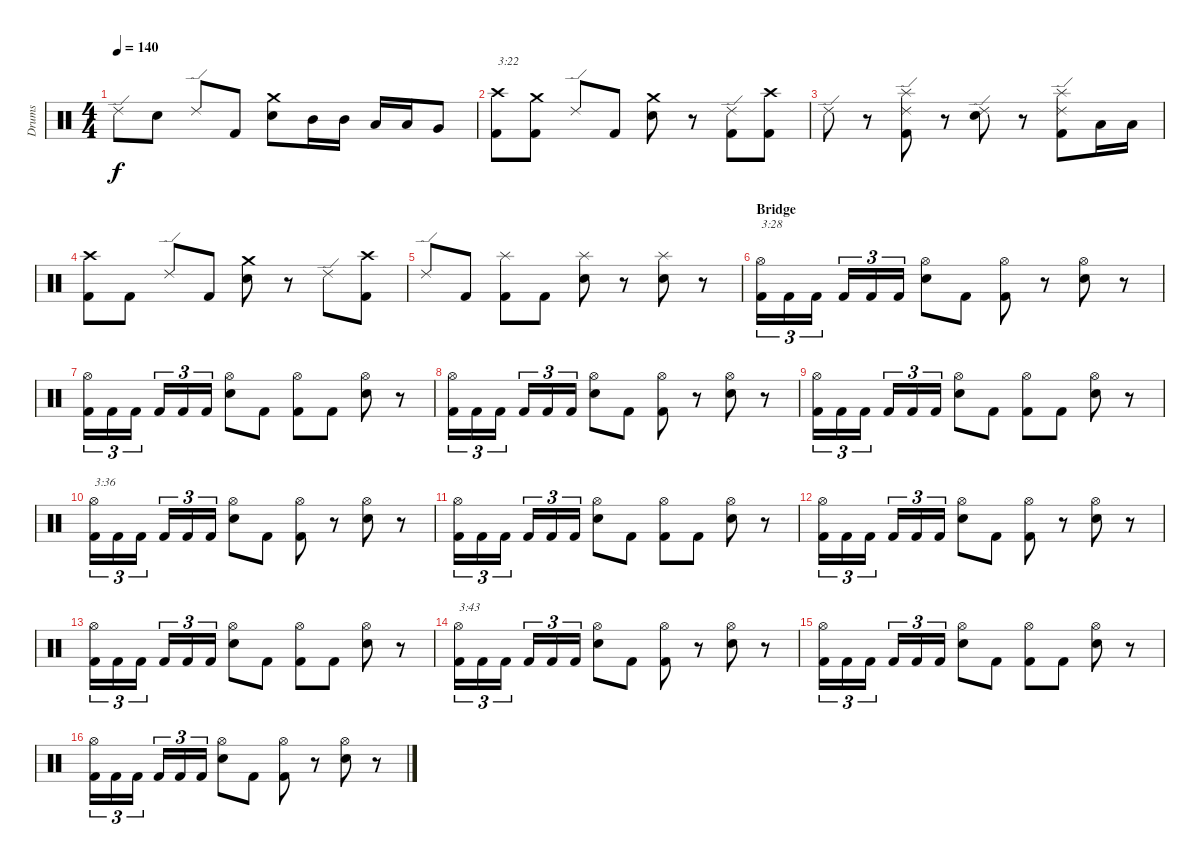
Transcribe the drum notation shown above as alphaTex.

\track ("Drums" "Drums") {instrument percussion}
\staff {score}
\articulation defaults
\ts (4 4)
\tempo 140
\clef neutral
\ks c "Ride (edge) 2".8{dy f} "Electric Snare (hit)".8 "Ride (edge) 2".8 "Kick (hit) 2".8
("Crash medium (hit)" "Electric Snare (hit)").8 "Mid Tom (hit)".16 "Mid Tom (hit)".16 "Low Tom (hit)".16 "Low Tom (hit)".16 "Very Low Tom (hit)".8 |
("Crash high (hit)" "Kick (hit) 2").8{txt "3:22"} ("Crash medium (hit)" "Kick (hit) 2").8 "Ride (edge) 2".8 "Kick (hit) 2".8 ("Crash medium (hit)" "Electric Snare (hit)").8 r.8 ("Ride (edge) 2" "Kick (hit) 2").8 ("Crash high (hit)" "Kick (hit) 2").8 |
"Ride (edge) 2".8 r.8 ("Splash (hit)" "Ride (edge) 2" "Kick (hit) 2").8 r.8 ("Ride (edge) 2" "Electric Snare (hit)").8 r.8 ("Splash (hit)" "Ride (edge) 2" "Kick (hit) 2").8 "Low Tom (hit)".16 "Low Tom (hit)".16 |
("Crash high (hit)" "Kick (hit) 2").8 "Kick (hit) 2".8 "Ride (edge) 2".8 "Kick (hit) 2".8 ("Crash medium (hit)" "Electric Snare (hit)").8 r.8 "Ride (edge) 2".8 ("Crash high (hit)" "Kick (hit) 2").8 |
"Ride (edge) 2".8 "Kick (hit) 2".8 ("Splash (hit)" "Kick (hit) 2").8 "Kick (hit) 2".8 ("Splash (hit)" "Electric Snare (hit)").8 r.8 ("Splash (hit)" "Electric Snare (hit)").8 r.8 |
\section ("" "Bridge")
("Hi-Hat (open)" "Kick (hit) 2").16{tu (3 2) txt "3:28"} "Kick (hit) 2".16{tu (3 2)} "Kick (hit) 2".16{tu (3 2)} "Kick (hit) 2".16{tu (3 2)} "Kick (hit) 2".16{tu (3 2)} "Kick (hit) 2".16{tu (3 2)} ("Hi-Hat (open)" "Electric Snare (hit)").8 "Kick (hit) 2".8 ("Hi-Hat (open)" "Kick (hit) 2").8 r.8 ("Hi-Hat (open)" "Electric Snare (hit)").8 r.8 |
("Hi-Hat (open)" "Kick (hit) 2").16{tu (3 2)} "Kick (hit) 2".16{tu (3 2)} "Kick (hit) 2".16{tu (3 2)} "Kick (hit) 2".16{tu (3 2)} "Kick (hit) 2".16{tu (3 2)} "Kick (hit) 2".16{tu (3 2)} ("Hi-Hat (open)" "Electric Snare (hit)").8 "Kick (hit) 2".8 ("Hi-Hat (open)" "Kick (hit) 2").8 "Kick (hit) 2".8 ("Hi-Hat (open)" "Electric Snare (hit)").8 r.8 |
("Hi-Hat (open)" "Kick (hit) 2").16{tu (3 2)} "Kick (hit) 2".16{tu (3 2)} "Kick (hit) 2".16{tu (3 2)} "Kick (hit) 2".16{tu (3 2)} "Kick (hit) 2".16{tu (3 2)} "Kick (hit) 2".16{tu (3 2)} ("Hi-Hat (open)" "Electric Snare (hit)").8 "Kick (hit) 2".8 ("Hi-Hat (open)" "Kick (hit) 2").8 r.8 ("Hi-Hat (open)" "Electric Snare (hit)").8 r.8 |
("Hi-Hat (open)" "Kick (hit) 2").16{tu (3 2)} "Kick (hit) 2".16{tu (3 2)} "Kick (hit) 2".16{tu (3 2)} "Kick (hit) 2".16{tu (3 2)} "Kick (hit) 2".16{tu (3 2)} "Kick (hit) 2".16{tu (3 2)} ("Hi-Hat (open)" "Electric Snare (hit)").8 "Kick (hit) 2".8 ("Hi-Hat (open)" "Kick (hit) 2").8 "Kick (hit) 2".8 ("Hi-Hat (open)" "Electric Snare (hit)").8 r.8 |
("Hi-Hat (open)" "Kick (hit) 2").16{tu (3 2) txt "3:36"} "Kick (hit) 2".16{tu (3 2)} "Kick (hit) 2".16{tu (3 2)} "Kick (hit) 2".16{tu (3 2)} "Kick (hit) 2".16{tu (3 2)} "Kick (hit) 2".16{tu (3 2)} ("Hi-Hat (open)" "Electric Snare (hit)").8 "Kick (hit) 2".8 ("Hi-Hat (open)" "Kick (hit) 2").8 r.8 ("Hi-Hat (open)" "Electric Snare (hit)").8 r.8 |
("Hi-Hat (open)" "Kick (hit) 2").16{tu (3 2)} "Kick (hit) 2".16{tu (3 2)} "Kick (hit) 2".16{tu (3 2)} "Kick (hit) 2".16{tu (3 2)} "Kick (hit) 2".16{tu (3 2)} "Kick (hit) 2".16{tu (3 2)} ("Hi-Hat (open)" "Electric Snare (hit)").8 "Kick (hit) 2".8 ("Hi-Hat (open)" "Kick (hit) 2").8 "Kick (hit) 2".8 ("Hi-Hat (open)" "Electric Snare (hit)").8 r.8 |
("Hi-Hat (open)" "Kick (hit) 2").16{tu (3 2)} "Kick (hit) 2".16{tu (3 2)} "Kick (hit) 2".16{tu (3 2)} "Kick (hit) 2".16{tu (3 2)} "Kick (hit) 2".16{tu (3 2)} "Kick (hit) 2".16{tu (3 2)} ("Hi-Hat (open)" "Electric Snare (hit)").8 "Kick (hit) 2".8 ("Hi-Hat (open)" "Kick (hit) 2").8 r.8 ("Hi-Hat (open)" "Electric Snare (hit)").8 r.8 |
("Hi-Hat (open)" "Kick (hit) 2").16{tu (3 2)} "Kick (hit) 2".16{tu (3 2)} "Kick (hit) 2".16{tu (3 2)} "Kick (hit) 2".16{tu (3 2)} "Kick (hit) 2".16{tu (3 2)} "Kick (hit) 2".16{tu (3 2)} ("Hi-Hat (open)" "Electric Snare (hit)").8 "Kick (hit) 2".8 ("Hi-Hat (open)" "Kick (hit) 2").8 "Kick (hit) 2".8 ("Hi-Hat (open)" "Electric Snare (hit)").8 r.8 |
("Hi-Hat (open)" "Kick (hit) 2").16{tu (3 2) txt "3:43"} "Kick (hit) 2".16{tu (3 2)} "Kick (hit) 2".16{tu (3 2)} "Kick (hit) 2".16{tu (3 2)} "Kick (hit) 2".16{tu (3 2)} "Kick (hit) 2".16{tu (3 2)} ("Hi-Hat (open)" "Electric Snare (hit)").8 "Kick (hit) 2".8 ("Hi-Hat (open)" "Kick (hit) 2").8 r.8 ("Hi-Hat (open)" "Electric Snare (hit)").8 r.8 |
("Hi-Hat (open)" "Kick (hit) 2").16{tu (3 2)} "Kick (hit) 2".16{tu (3 2)} "Kick (hit) 2".16{tu (3 2)} "Kick (hit) 2".16{tu (3 2)} "Kick (hit) 2".16{tu (3 2)} "Kick (hit) 2".16{tu (3 2)} ("Hi-Hat (open)" "Electric Snare (hit)").8 "Kick (hit) 2".8 ("Hi-Hat (open)" "Kick (hit) 2").8 "Kick (hit) 2".8 ("Hi-Hat (open)" "Electric Snare (hit)").8 r.8 |
("Hi-Hat (open)" "Kick (hit) 2").16{tu (3 2)} "Kick (hit) 2".16{tu (3 2)} "Kick (hit) 2".16{tu (3 2)} "Kick (hit) 2".16{tu (3 2)} "Kick (hit) 2".16{tu (3 2)} "Kick (hit) 2".16{tu (3 2)} ("Hi-Hat (open)" "Electric Snare (hit)").8 "Kick (hit) 2".8 ("Hi-Hat (open)" "Kick (hit) 2").8 r.8 ("Hi-Hat (open)" "Electric Snare (hit)").8 r.8
